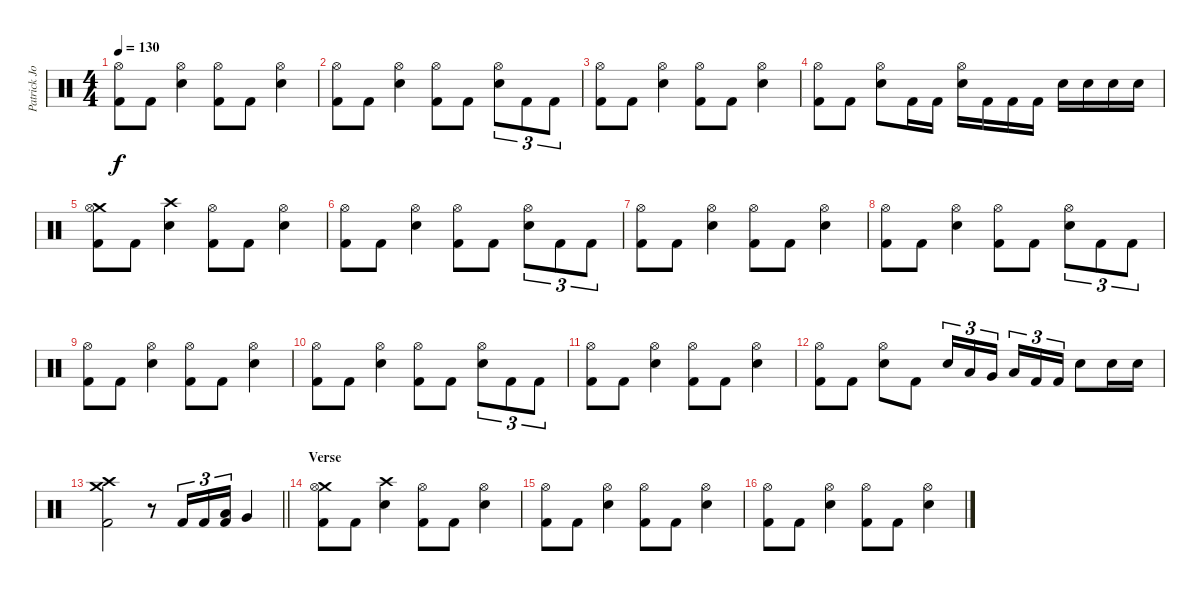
\track ("Patrick Johansson " "Patrick Jo") {instrument percussion}
\staff {score}
\articulation defaults
\ts (4 4)
\tempo 130
\clef neutral
\ks c
("Hi-Hat (open)" "Kick (hit) 2").8{dy f} "Kick (hit) 2".8 ("Hi-Hat (open)" "Snare (hit) 2").4 ("Hi-Hat (open)" "Kick (hit) 2").8 "Kick (hit) 2".8 ("Hi-Hat (open)" "Snare (hit) 2").4 |
("Hi-Hat (open)" "Kick (hit) 2").8 "Kick (hit) 2".8 ("Hi-Hat (open)" "Snare (hit) 2").4 ("Hi-Hat (open)" "Kick (hit) 2").8 "Kick (hit) 2".8 ("Hi-Hat (open)" "Snare (hit) 2").8{tu (3 2)} "Kick (hit) 2".8{tu (3 2)} "Kick (hit) 2".8{tu (3 2)} |
("Hi-Hat (open)" "Kick (hit) 2").8 "Kick (hit) 2".8 ("Hi-Hat (open)" "Snare (hit) 2").4 ("Hi-Hat (open)" "Kick (hit) 2").8 "Kick (hit) 2".8 ("Hi-Hat (open)" "Snare (hit) 2").4 |
("Hi-Hat (open)" "Kick (hit) 2").8 "Kick (hit) 2".8 ("Hi-Hat (open)" "Snare (hit) 2").8 "Kick (hit) 2".16 "Kick (hit) 2".16 ("Hi-Hat (open)" "Snare (hit) 2").16 "Kick (hit) 2".16 "Kick (hit) 2".16 "Kick (hit) 2".16 "Snare (hit) 2".16 "Snare (hit) 2".16 "Snare (hit) 2".16 "Snare (hit) 2".16 |
("Crash medium (hit)" "Hi-Hat (open)" "Kick (hit) 2").8 "Kick (hit) 2".8 ("Crash high (hit)" "Snare (hit) 2").4 ("Hi-Hat (open)" "Kick (hit) 2").8 "Kick (hit) 2".8 ("Hi-Hat (open)" "Snare (hit) 2").4 |
("Hi-Hat (open)" "Kick (hit) 2").8 "Kick (hit) 2".8 ("Hi-Hat (open)" "Snare (hit) 2").4 ("Hi-Hat (open)" "Kick (hit) 2").8 "Kick (hit) 2".8 ("Hi-Hat (open)" "Snare (hit) 2").8{tu (3 2)} "Kick (hit) 2".8{tu (3 2)} "Kick (hit) 2".8{tu (3 2)} |
("Hi-Hat (open)" "Kick (hit) 2").8 "Kick (hit) 2".8 ("Hi-Hat (open)" "Snare (hit) 2").4 ("Hi-Hat (open)" "Kick (hit) 2").8 "Kick (hit) 2".8 ("Hi-Hat (open)" "Snare (hit) 2").4 |
("Hi-Hat (open)" "Kick (hit) 2").8 "Kick (hit) 2".8 ("Hi-Hat (open)" "Snare (hit) 2").4 ("Hi-Hat (open)" "Kick (hit) 2").8 "Kick (hit) 2".8 ("Hi-Hat (open)" "Snare (hit) 2").8{tu (3 2)} "Kick (hit) 2".8{tu (3 2)} "Kick (hit) 2".8{tu (3 2)} |
("Hi-Hat (open)" "Kick (hit) 2").8 "Kick (hit) 2".8 ("Hi-Hat (open)" "Snare (hit) 2").4 ("Hi-Hat (open)" "Kick (hit) 2").8 "Kick (hit) 2".8 ("Hi-Hat (open)" "Snare (hit) 2").4 |
("Hi-Hat (open)" "Kick (hit) 2").8 "Kick (hit) 2".8 ("Hi-Hat (open)" "Snare (hit) 2").4 ("Hi-Hat (open)" "Kick (hit) 2").8 "Kick (hit) 2".8 ("Hi-Hat (open)" "Snare (hit) 2").8{tu (3 2)} "Kick (hit) 2".8{tu (3 2)} "Kick (hit) 2".8{tu (3 2)} |
("Hi-Hat (open)" "Kick (hit) 2").8 "Kick (hit) 2".8 ("Hi-Hat (open)" "Snare (hit) 2").4 ("Hi-Hat (open)" "Kick (hit) 2").8 "Kick (hit) 2".8 ("Hi-Hat (open)" "Snare (hit) 2").4 |
("Hi-Hat (open)" "Kick (hit) 2").8 "Kick (hit) 2".8 ("Hi-Hat (open)" "Snare (hit) 2").8 "Kick (hit) 2".8 "Snare (hit) 2".16{tu (3 2)} "Low Tom (hit)".16{tu (3 2)} "Very Low Tom (hit)".16{tu (3 2) beam splitsecondary} "Low Floor Tom (hit)".16{tu (3 2)} "Kick (hit) 2".16{tu (3 2)} "Kick (hit) 2".16{tu (3 2)} "Snare (hit) 2".8 "Snare (hit) 2".16 "Snare (hit) 2".16 |
\barLineRight lightlight
("Crash medium (hit)" "Crash high (hit)" "Kick (hit) 2").2 r.8 "Kick (hit) 2".16{tu (3 2)} "Kick (hit) 2".16{tu (3 2)} ("Low Tom (hit)" "Kick (hit) 2").16{tu (3 2)} "Very Low Tom (hit)".4 |
\section ("" "Verse")
("Crash medium (hit)" "Hi-Hat (open)" "Kick (hit) 2").8 "Kick (hit) 2".8 ("Crash high (hit)" "Snare (hit) 2").4 ("Hi-Hat (open)" "Kick (hit) 2").8 "Kick (hit) 2".8 ("Hi-Hat (open)" "Snare (hit) 2").4 |
("Hi-Hat (open)" "Kick (hit) 2").8 "Kick (hit) 2".8 ("Hi-Hat (open)" "Snare (hit) 2").4 ("Hi-Hat (open)" "Kick (hit) 2").8 "Kick (hit) 2".8 ("Hi-Hat (open)" "Snare (hit) 2").4 |
("Hi-Hat (open)" "Kick (hit) 2").8 "Kick (hit) 2".8 ("Hi-Hat (open)" "Snare (hit) 2").4 ("Hi-Hat (open)" "Kick (hit) 2").8 "Kick (hit) 2".8 ("Hi-Hat (open)" "Snare (hit) 2").4
